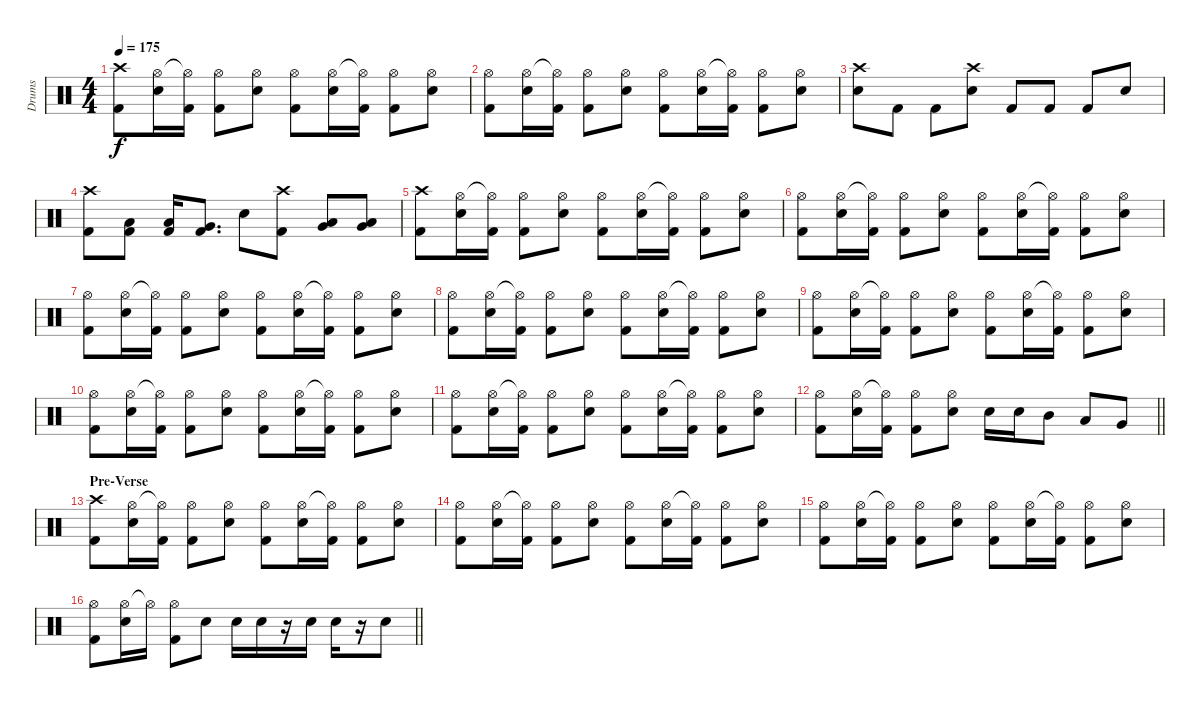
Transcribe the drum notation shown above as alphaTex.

\track ("Drums" "Drums") {instrument percussion}
\staff {score}
\articulation defaults
\ts (4 4)
\tempo 175
\clef neutral
\ks c
("Crash high (hit)" "Kick (hit) 2").8{dy f} ("Hi-Hat (open)" "Electric Snare (hit)").16 ("Hi-Hat (open)"{t} "Kick (hit) 2").16 ("Hi-Hat (open)" "Kick (hit) 2").8 ("Hi-Hat (open)" "Electric Snare (hit)").8 ("Hi-Hat (open)" "Kick (hit) 2").8 ("Hi-Hat (open)" "Electric Snare (hit)").16 ("Hi-Hat (open)"{t} "Kick (hit) 2").16 ("Hi-Hat (open)" "Kick (hit) 2").8 ("Hi-Hat (open)" "Electric Snare (hit)").8 |
("Hi-Hat (open)" "Kick (hit) 2").8 ("Hi-Hat (open)" "Electric Snare (hit)").16 ("Hi-Hat (open)"{t} "Kick (hit) 2").16 ("Hi-Hat (open)" "Kick (hit) 2").8 ("Hi-Hat (open)" "Electric Snare (hit)").8 ("Hi-Hat (open)" "Kick (hit) 2").8 ("Hi-Hat (open)" "Electric Snare (hit)").16 ("Hi-Hat (open)"{t} "Kick (hit) 2").16 ("Hi-Hat (open)" "Kick (hit) 2").8 ("Hi-Hat (open)" "Electric Snare (hit)").8 |
("Crash high (hit)" "Electric Snare (hit)").8 "Kick (hit) 2".8 "Kick (hit) 2".8 ("Crash high (hit)" "Electric Snare (hit)").8 "Kick (hit) 2".8 "Kick (hit) 2".8 "Kick (hit) 2".8 "Electric Snare (hit)".8 |
("Crash high (hit)" "Kick (hit) 2").8 ("Low Tom (hit)" "Kick (hit) 2").8 ("Low Tom (hit)" "Kick (hit) 2").16 ("Very Low Tom (hit)" "Kick (hit) 2").8{d} "Electric Snare (hit)".8 ("Crash high (hit)" "Kick (hit) 2").8 ("Low Tom (hit)" "Very Low Tom (hit)").8 ("Low Tom (hit)" "Very Low Tom (hit)").8 |
("Crash high (hit)" "Kick (hit) 2").8 ("Hi-Hat (open)" "Electric Snare (hit)").16 ("Hi-Hat (open)"{t} "Kick (hit) 2").16 ("Hi-Hat (open)" "Kick (hit) 2").8 ("Hi-Hat (open)" "Electric Snare (hit)").8 ("Hi-Hat (open)" "Kick (hit) 2").8 ("Hi-Hat (open)" "Electric Snare (hit)").16 ("Hi-Hat (open)"{t} "Kick (hit) 2").16 ("Hi-Hat (open)" "Kick (hit) 2").8 ("Hi-Hat (open)" "Electric Snare (hit)").8 |
("Hi-Hat (open)" "Kick (hit) 2").8 ("Hi-Hat (open)" "Electric Snare (hit)").16 ("Hi-Hat (open)"{t} "Kick (hit) 2").16 ("Hi-Hat (open)" "Kick (hit) 2").8 ("Hi-Hat (open)" "Electric Snare (hit)").8 ("Hi-Hat (open)" "Kick (hit) 2").8 ("Hi-Hat (open)" "Electric Snare (hit)").16 ("Hi-Hat (open)"{t} "Kick (hit) 2").16 ("Hi-Hat (open)" "Kick (hit) 2").8 ("Hi-Hat (open)" "Electric Snare (hit)").8 |
("Hi-Hat (open)" "Kick (hit) 2").8 ("Hi-Hat (open)" "Electric Snare (hit)").16 ("Hi-Hat (open)"{t} "Kick (hit) 2").16 ("Hi-Hat (open)" "Kick (hit) 2").8 ("Hi-Hat (open)" "Electric Snare (hit)").8 ("Hi-Hat (open)" "Kick (hit) 2").8 ("Hi-Hat (open)" "Electric Snare (hit)").16 ("Hi-Hat (open)"{t} "Kick (hit) 2").16 ("Hi-Hat (open)" "Kick (hit) 2").8 ("Hi-Hat (open)" "Electric Snare (hit)").8 |
("Hi-Hat (open)" "Kick (hit) 2").8 ("Hi-Hat (open)" "Electric Snare (hit)").16 ("Hi-Hat (open)"{t} "Kick (hit) 2").16 ("Hi-Hat (open)" "Kick (hit) 2").8 ("Hi-Hat (open)" "Electric Snare (hit)").8 ("Hi-Hat (open)" "Kick (hit) 2").8 ("Hi-Hat (open)" "Electric Snare (hit)").16 ("Hi-Hat (open)"{t} "Kick (hit) 2").16 ("Hi-Hat (open)" "Kick (hit) 2").8 ("Hi-Hat (open)" "Electric Snare (hit)").8 |
("Hi-Hat (open)" "Kick (hit) 2").8 ("Hi-Hat (open)" "Electric Snare (hit)").16 ("Hi-Hat (open)"{t} "Kick (hit) 2").16 ("Hi-Hat (open)" "Kick (hit) 2").8 ("Hi-Hat (open)" "Electric Snare (hit)").8 ("Hi-Hat (open)" "Kick (hit) 2").8 ("Hi-Hat (open)" "Electric Snare (hit)").16 ("Hi-Hat (open)"{t} "Kick (hit) 2").16 ("Hi-Hat (open)" "Kick (hit) 2").8 ("Hi-Hat (open)" "Electric Snare (hit)").8 |
("Hi-Hat (open)" "Kick (hit) 2").8 ("Hi-Hat (open)" "Electric Snare (hit)").16 ("Hi-Hat (open)"{t} "Kick (hit) 2").16 ("Hi-Hat (open)" "Kick (hit) 2").8 ("Hi-Hat (open)" "Electric Snare (hit)").8 ("Hi-Hat (open)" "Kick (hit) 2").8 ("Hi-Hat (open)" "Electric Snare (hit)").16 ("Hi-Hat (open)"{t} "Kick (hit) 2").16 ("Hi-Hat (open)" "Kick (hit) 2").8 ("Hi-Hat (open)" "Electric Snare (hit)").8 |
("Hi-Hat (open)" "Kick (hit) 2").8 ("Hi-Hat (open)" "Electric Snare (hit)").16 ("Hi-Hat (open)"{t} "Kick (hit) 2").16 ("Hi-Hat (open)" "Kick (hit) 2").8 ("Hi-Hat (open)" "Electric Snare (hit)").8 ("Hi-Hat (open)" "Kick (hit) 2").8 ("Hi-Hat (open)" "Electric Snare (hit)").16 ("Hi-Hat (open)"{t} "Kick (hit) 2").16 ("Hi-Hat (open)" "Kick (hit) 2").8 ("Hi-Hat (open)" "Electric Snare (hit)").8 |
\barLineRight lightlight
("Hi-Hat (open)" "Kick (hit) 2").8 ("Hi-Hat (open)" "Electric Snare (hit)").16 ("Hi-Hat (open)"{t} "Kick (hit) 2").16 ("Hi-Hat (open)" "Kick (hit) 2").8 ("Hi-Hat (open)" "Electric Snare (hit)").8 "Electric Snare (hit)".16 "Electric Snare (hit)".16 "Mid Tom (hit)".8 "Low Tom (hit)".8 "Very Low Tom (hit)".8 |
\section ("" "Pre-Verse")
("Crash high (hit)" "Kick (hit) 2").8 ("Hi-Hat (open)" "Electric Snare (hit)").16 ("Hi-Hat (open)"{t} "Kick (hit) 2").16 ("Hi-Hat (open)" "Kick (hit) 2").8 ("Hi-Hat (open)" "Electric Snare (hit)").8 ("Hi-Hat (open)" "Kick (hit) 2").8 ("Hi-Hat (open)" "Electric Snare (hit)").16 ("Hi-Hat (open)"{t} "Kick (hit) 2").16 ("Hi-Hat (open)" "Kick (hit) 2").8 ("Hi-Hat (open)" "Electric Snare (hit)").8 |
("Hi-Hat (open)" "Kick (hit) 2").8 ("Hi-Hat (open)" "Electric Snare (hit)").16 ("Hi-Hat (open)"{t} "Kick (hit) 2").16 ("Hi-Hat (open)" "Kick (hit) 2").8 ("Hi-Hat (open)" "Electric Snare (hit)").8 ("Hi-Hat (open)" "Kick (hit) 2").8 ("Hi-Hat (open)" "Electric Snare (hit)").16 ("Hi-Hat (open)"{t} "Kick (hit) 2").16 ("Hi-Hat (open)" "Kick (hit) 2").8 ("Hi-Hat (open)" "Electric Snare (hit)").8 |
("Hi-Hat (open)" "Kick (hit) 2").8 ("Hi-Hat (open)" "Electric Snare (hit)").16 ("Hi-Hat (open)"{t} "Kick (hit) 2").16 ("Hi-Hat (open)" "Kick (hit) 2").8 ("Hi-Hat (open)" "Electric Snare (hit)").8 ("Hi-Hat (open)" "Kick (hit) 2").8 ("Hi-Hat (open)" "Electric Snare (hit)").16 ("Hi-Hat (open)"{t} "Kick (hit) 2").16 ("Hi-Hat (open)" "Kick (hit) 2").8 ("Hi-Hat (open)" "Electric Snare (hit)").8 |
\barLineRight lightlight
("Hi-Hat (open)" "Kick (hit) 2").8 ("Hi-Hat (open)" "Electric Snare (hit)").16 "Hi-Hat (open)"{t}.16 ("Hi-Hat (open)" "Kick (hit) 2").8 "Electric Snare (hit)".8 "Electric Snare (hit)".16 "Electric Snare (hit)".16 r.16 "Electric Snare (hit)".16 "Electric Snare (hit)".16 r.16 "Electric Snare (hit)".8
